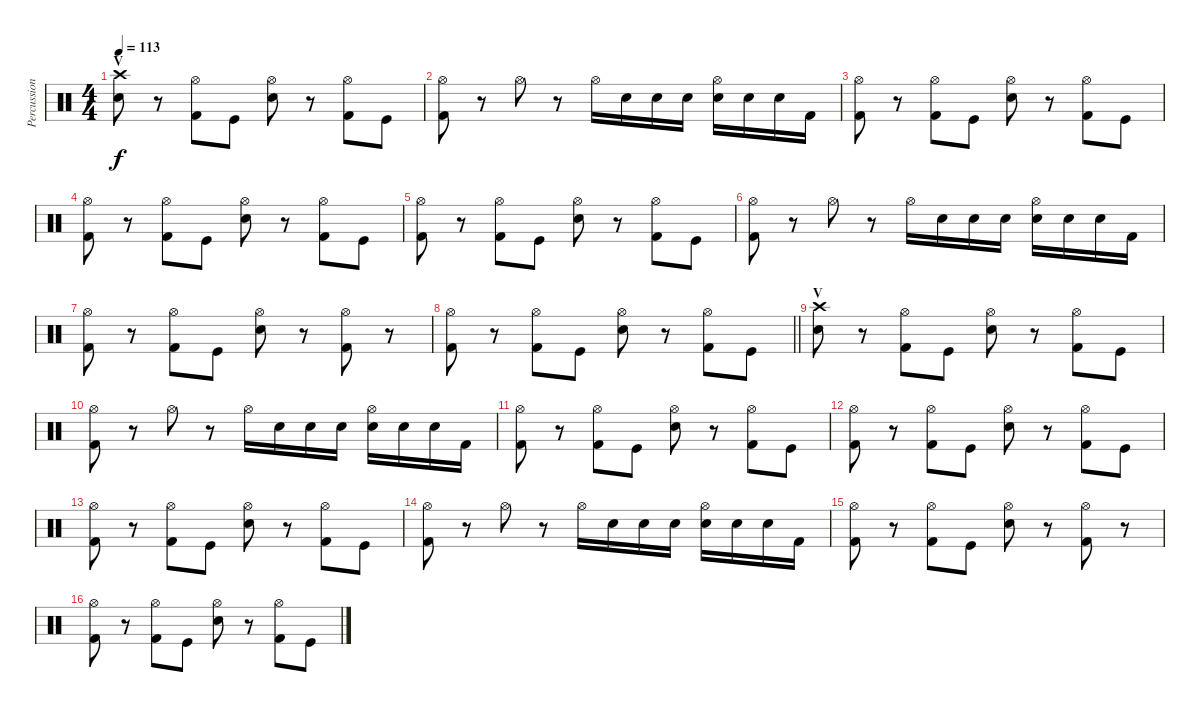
\track ("Percussion" "Percussion") {instrument percussion}
\staff {score}
\articulation defaults
\ts (4 4)
\section ("" "V")
\tempo 113
\clef neutral
\ks c
("Crash high (hit)" "Electric Snare (hit)").8{dy f} r.8 ("Kick (hit) 2" "Hi-Hat (open)").8 "Kick (hit)".8 ("Electric Snare (hit)" "Hi-Hat (open)").8 r.8 ("Kick (hit) 2" "Hi-Hat (open)").8 "Kick (hit)".8 |
("Kick (hit) 2" "Hi-Hat (open)").8 r.8 "Hi-Hat (open)".8 r.8 "Hi-Hat (open)".16 "Electric Snare (hit)".16 "Electric Snare (hit)".16 "Electric Snare (hit)".16 ("Electric Snare (hit)" "Hi-Hat (open)").16 "Electric Snare (hit)".16 "Electric Snare (hit)".16 "Kick (hit) 2".16 |
("Kick (hit) 2" "Hi-Hat (open)").8 r.8 ("Kick (hit) 2" "Hi-Hat (open)").8 "Kick (hit)".8 ("Electric Snare (hit)" "Hi-Hat (open)").8 r.8 ("Kick (hit) 2" "Hi-Hat (open)").8 "Kick (hit)".8 |
("Kick (hit) 2" "Hi-Hat (open)").8 r.8 ("Kick (hit) 2" "Hi-Hat (open)").8 "Kick (hit)".8 ("Electric Snare (hit)" "Hi-Hat (open)").8 r.8 ("Kick (hit) 2" "Hi-Hat (open)").8 "Kick (hit)".8 |
("Kick (hit) 2" "Hi-Hat (open)").8 r.8 ("Kick (hit) 2" "Hi-Hat (open)").8 "Kick (hit)".8 ("Electric Snare (hit)" "Hi-Hat (open)").8 r.8 ("Kick (hit) 2" "Hi-Hat (open)").8 "Kick (hit)".8 |
("Kick (hit) 2" "Hi-Hat (open)").8 r.8 "Hi-Hat (open)".8 r.8 "Hi-Hat (open)".16 "Electric Snare (hit)".16 "Electric Snare (hit)".16 "Electric Snare (hit)".16 ("Electric Snare (hit)" "Hi-Hat (open)").16 "Electric Snare (hit)".16 "Electric Snare (hit)".16 "Kick (hit) 2".16 |
("Kick (hit) 2" "Hi-Hat (open)").8 r.8 ("Kick (hit) 2" "Hi-Hat (open)").8 "Kick (hit)".8 ("Electric Snare (hit)" "Hi-Hat (open)").8 r.8 ("Kick (hit) 2" "Hi-Hat (open)").8 r.8 |
\barLineRight lightlight
("Kick (hit) 2" "Hi-Hat (open)").8 r.8 ("Kick (hit) 2" "Hi-Hat (open)").8 "Kick (hit)".8 ("Electric Snare (hit)" "Hi-Hat (open)").8 r.8 ("Kick (hit) 2" "Hi-Hat (open)").8 "Kick (hit)".8 |
\section ("" "V")
("Crash high (hit)" "Electric Snare (hit)").8 r.8 ("Kick (hit) 2" "Hi-Hat (open)").8 "Kick (hit)".8 ("Electric Snare (hit)" "Hi-Hat (open)").8 r.8 ("Kick (hit) 2" "Hi-Hat (open)").8 "Kick (hit)".8 |
("Kick (hit) 2" "Hi-Hat (open)").8 r.8 "Hi-Hat (open)".8 r.8 "Hi-Hat (open)".16 "Electric Snare (hit)".16 "Electric Snare (hit)".16 "Electric Snare (hit)".16 ("Electric Snare (hit)" "Hi-Hat (open)").16 "Electric Snare (hit)".16 "Electric Snare (hit)".16 "Kick (hit) 2".16 |
("Kick (hit) 2" "Hi-Hat (open)").8 r.8 ("Kick (hit) 2" "Hi-Hat (open)").8 "Kick (hit)".8 ("Electric Snare (hit)" "Hi-Hat (open)").8 r.8 ("Kick (hit) 2" "Hi-Hat (open)").8 "Kick (hit)".8 |
("Kick (hit) 2" "Hi-Hat (open)").8 r.8 ("Kick (hit) 2" "Hi-Hat (open)").8 "Kick (hit)".8 ("Electric Snare (hit)" "Hi-Hat (open)").8 r.8 ("Kick (hit) 2" "Hi-Hat (open)").8 "Kick (hit)".8 |
("Kick (hit) 2" "Hi-Hat (open)").8 r.8 ("Kick (hit) 2" "Hi-Hat (open)").8 "Kick (hit)".8 ("Electric Snare (hit)" "Hi-Hat (open)").8 r.8 ("Kick (hit) 2" "Hi-Hat (open)").8 "Kick (hit)".8 |
("Kick (hit) 2" "Hi-Hat (open)").8 r.8 "Hi-Hat (open)".8 r.8 "Hi-Hat (open)".16 "Electric Snare (hit)".16 "Electric Snare (hit)".16 "Electric Snare (hit)".16 ("Electric Snare (hit)" "Hi-Hat (open)").16 "Electric Snare (hit)".16 "Electric Snare (hit)".16 "Kick (hit) 2".16 |
("Kick (hit) 2" "Hi-Hat (open)").8 r.8 ("Kick (hit) 2" "Hi-Hat (open)").8 "Kick (hit)".8 ("Electric Snare (hit)" "Hi-Hat (open)").8 r.8 ("Kick (hit) 2" "Hi-Hat (open)").8 r.8 |
("Kick (hit) 2" "Hi-Hat (open)").8 r.8 ("Kick (hit) 2" "Hi-Hat (open)").8 "Kick (hit)".8 ("Electric Snare (hit)" "Hi-Hat (open)").8 r.8 ("Kick (hit) 2" "Hi-Hat (open)").8 "Kick (hit)".8
